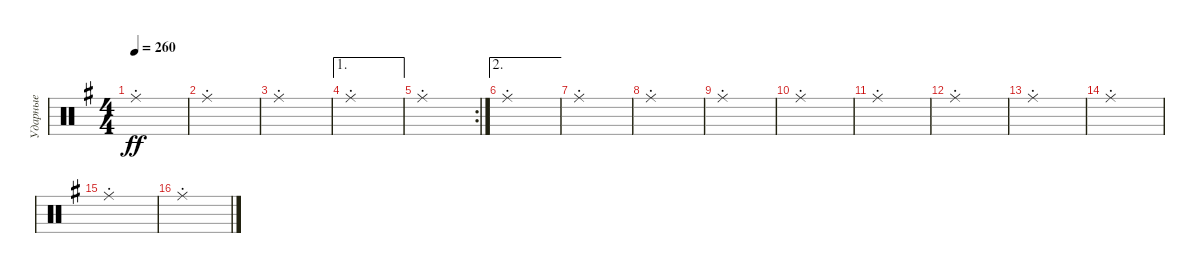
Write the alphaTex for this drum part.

\track ("Ударные" "Ударные") {instrument percussion}
\staff {score}
\articulation defaults
\ts (4 4)
\tempo 260
\clef neutral
\ks g "Ride (middle)"{st}.1{dy ff}
|
"Ride (middle)"{st}.1 |
"Ride (middle)"{st}.1 |
\ae 1 "Ride (middle)"{st}.1
|
\rc 2 "Ride (middle)"{st}.1
|
\ae 2 "Ride (middle)"{st}.1
|
"Ride (middle)"{st}.1 |
"Ride (middle)"{st}.1 |
"Ride (middle)"{st}.1 |
"Ride (middle)"{st}.1 |
"Ride (middle)"{st}.1 |
"Ride (middle)"{st}.1 |
"Ride (middle)"{st}.1 |
"Ride (middle)"{st}.1 |
"Ride (middle)"{st}.1 |
"Ride (middle)"{st}.1
